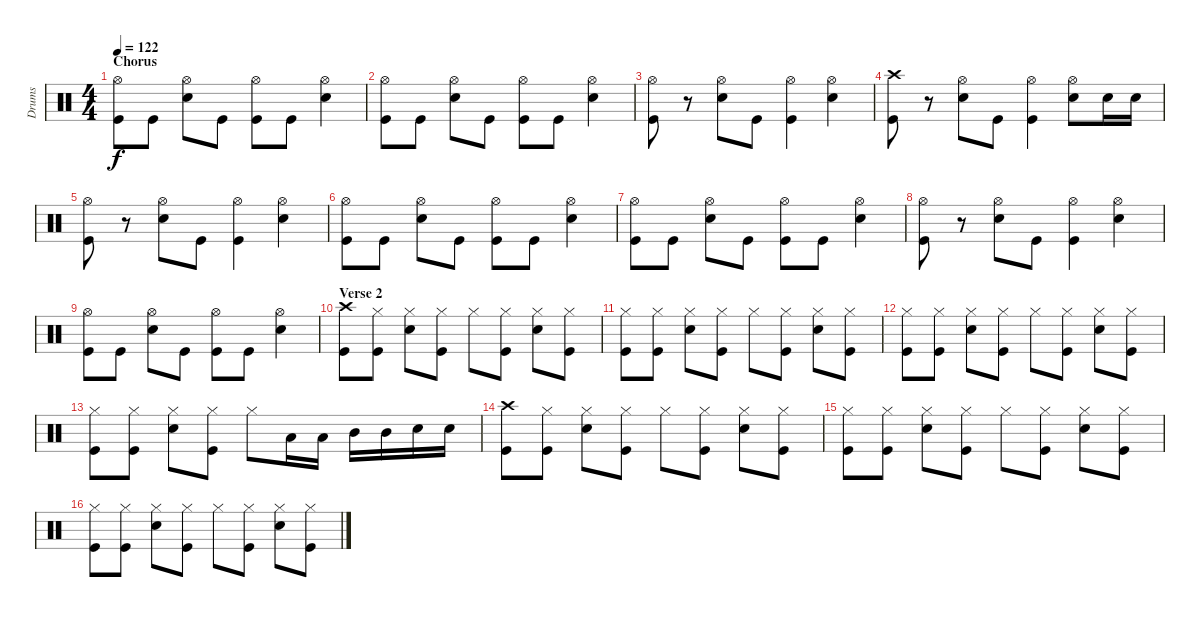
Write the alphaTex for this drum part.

\track ("Drums" "Drums") {instrument percussion}
\staff {score}
\articulation defaults
\ts (4 4)
\section ("" "Chorus")
\tempo 122
\clef neutral
\ks c
("Hi-Hat (open)" "Kick (hit)").8{dy f} "Kick (hit)".8 ("Hi-Hat (open)" "Snare (hit) 2").8 "Kick (hit)".8 ("Hi-Hat (open)" "Kick (hit)").8 "Kick (hit)".8 ("Hi-Hat (open)" "Snare (hit) 2").4 |
("Hi-Hat (open)" "Kick (hit)").8 "Kick (hit)".8 ("Hi-Hat (open)" "Snare (hit) 2").8 "Kick (hit)".8 ("Hi-Hat (open)" "Kick (hit)").8 "Kick (hit)".8 ("Hi-Hat (open)" "Snare (hit) 2").4 |
("Hi-Hat (open)" "Kick (hit)").8 r.8 ("Hi-Hat (open)" "Snare (hit) 2").8 "Kick (hit)".8 ("Hi-Hat (open)" "Kick (hit)").4 ("Hi-Hat (open)" "Snare (hit) 2").4 |
("Crash high (hit)" "Kick (hit)").8 r.8 ("Hi-Hat (open)" "Snare (hit) 2").8 "Kick (hit)".8 ("Hi-Hat (open)" "Kick (hit)").4 ("Hi-Hat (open)" "Snare (hit) 2").8 "Snare (hit) 2".16 "Snare (hit) 2".16 |
("Hi-Hat (open)" "Kick (hit)").8 r.8 ("Hi-Hat (open)" "Snare (hit) 2").8 "Kick (hit)".8 ("Hi-Hat (open)" "Kick (hit)").4 ("Hi-Hat (open)" "Snare (hit) 2").4 |
("Hi-Hat (open)" "Kick (hit)").8 "Kick (hit)".8 ("Hi-Hat (open)" "Snare (hit) 2").8 "Kick (hit)".8 ("Hi-Hat (open)" "Kick (hit)").8 "Kick (hit)".8 ("Hi-Hat (open)" "Snare (hit) 2").4 |
("Hi-Hat (open)" "Kick (hit)").8 "Kick (hit)".8 ("Hi-Hat (open)" "Snare (hit) 2").8 "Kick (hit)".8 ("Hi-Hat (open)" "Kick (hit)").8 "Kick (hit)".8 ("Hi-Hat (open)" "Snare (hit) 2").4 |
("Hi-Hat (open)" "Kick (hit)").8 r.8 ("Hi-Hat (open)" "Snare (hit) 2").8 "Kick (hit)".8 ("Hi-Hat (open)" "Kick (hit)").4 ("Hi-Hat (open)" "Snare (hit) 2").4 |
("Hi-Hat (open)" "Kick (hit)").8 "Kick (hit)".8 ("Hi-Hat (open)" "Snare (hit) 2").8 "Kick (hit)".8 ("Hi-Hat (open)" "Kick (hit)").8 "Kick (hit)".8 ("Hi-Hat (open)" "Snare (hit) 2").4 |
\section ("" "Verse 2")
("Crash high (hit)" "Kick (hit)").8 ("Hi-Hat (closed)" "Kick (hit)").8 ("Hi-Hat (closed)" "Snare (hit) 2").8 ("Hi-Hat (closed)" "Kick (hit)").8 "Hi-Hat (closed)".8 ("Hi-Hat (closed)" "Kick (hit)").8 ("Hi-Hat (closed)" "Snare (hit) 2").8 ("Hi-Hat (closed)" "Kick (hit)").8 |
("Hi-Hat (closed)" "Kick (hit)").8 ("Hi-Hat (closed)" "Kick (hit)").8 ("Hi-Hat (closed)" "Snare (hit) 2").8 ("Hi-Hat (closed)" "Kick (hit)").8 "Hi-Hat (closed)".8 ("Hi-Hat (closed)" "Kick (hit)").8 ("Hi-Hat (closed)" "Snare (hit) 2").8 ("Hi-Hat (closed)" "Kick (hit)").8 |
("Hi-Hat (closed)" "Kick (hit)").8 ("Hi-Hat (closed)" "Kick (hit)").8 ("Hi-Hat (closed)" "Snare (hit) 2").8 ("Hi-Hat (closed)" "Kick (hit)").8 "Hi-Hat (closed)".8 ("Hi-Hat (closed)" "Kick (hit)").8 ("Hi-Hat (closed)" "Snare (hit) 2").8 ("Hi-Hat (closed)" "Kick (hit)").8 |
("Hi-Hat (closed)" "Kick (hit)").8 ("Hi-Hat (closed)" "Kick (hit)").8 ("Hi-Hat (closed)" "Snare (hit) 2").8 ("Hi-Hat (closed)" "Kick (hit)").8 "Hi-Hat (closed)".8 "Low Tom (hit)".16 "Low Tom (hit)".16 "Mid Tom (hit)".16 "Mid Tom (hit)".16 "Snare (hit) 2".16 "Snare (hit) 2".16 |
("Crash high (hit)" "Kick (hit)").8 ("Hi-Hat (closed)" "Kick (hit)").8 ("Hi-Hat (closed)" "Snare (hit) 2").8 ("Hi-Hat (closed)" "Kick (hit)").8 "Hi-Hat (closed)".8 ("Hi-Hat (closed)" "Kick (hit)").8 ("Hi-Hat (closed)" "Snare (hit) 2").8 ("Hi-Hat (closed)" "Kick (hit)").8 |
("Hi-Hat (closed)" "Kick (hit)").8 ("Hi-Hat (closed)" "Kick (hit)").8 ("Hi-Hat (closed)" "Snare (hit) 2").8 ("Hi-Hat (closed)" "Kick (hit)").8 "Hi-Hat (closed)".8 ("Hi-Hat (closed)" "Kick (hit)").8 ("Hi-Hat (closed)" "Snare (hit) 2").8 ("Hi-Hat (closed)" "Kick (hit)").8 |
("Hi-Hat (closed)" "Kick (hit)").8 ("Hi-Hat (closed)" "Kick (hit)").8 ("Hi-Hat (closed)" "Snare (hit) 2").8 ("Hi-Hat (closed)" "Kick (hit)").8 "Hi-Hat (closed)".8 ("Hi-Hat (closed)" "Kick (hit)").8 ("Hi-Hat (closed)" "Snare (hit) 2").8 ("Hi-Hat (closed)" "Kick (hit)").8
